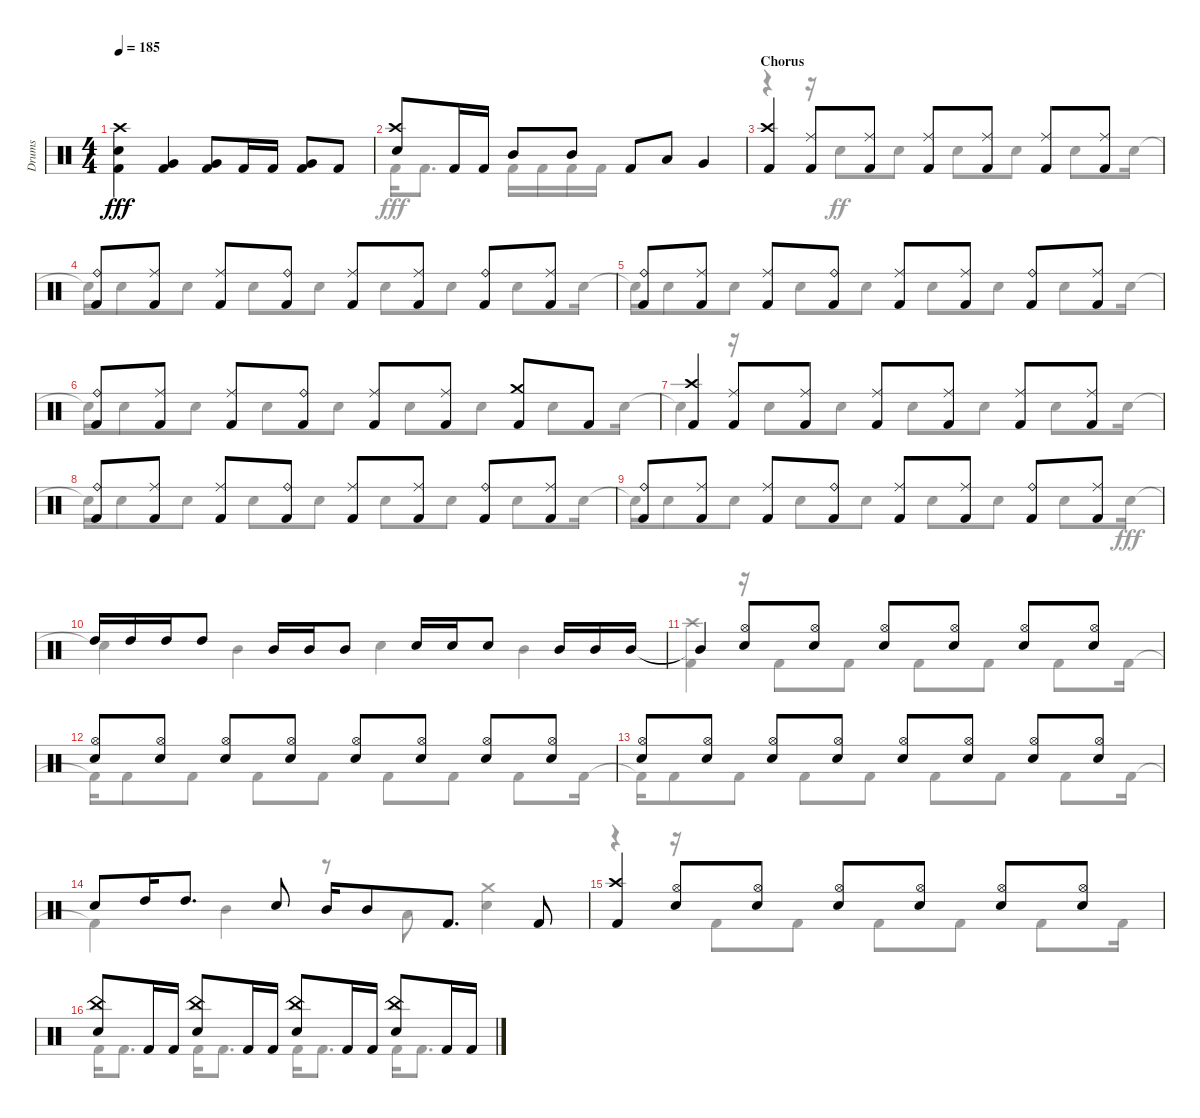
\track ("Drums" "Drums") {instrument percussion}
\staff {score}
\articulation defaults
\voice
\ts (4 4)
\tempo 185
\clef neutral
\ks aminor
("Crash high (hit)" "Snare (hit) 2" "Kick (hit) 2").4{dy fff} ("Kick (hit) 2" "Very Low Tom (hit)").4 ("Very Low Tom (hit)" "Kick (hit) 2").8 "Kick (hit) 2".16 "Kick (hit) 2".16 ("Kick (hit) 2" "Very Low Tom (hit)").8 "Kick (hit) 2".8 |
("Crash high (hit)" "Snare (hit) 2").8 "Kick (hit) 2".16 "Kick (hit) 2".16 "Mid Tom (hit)".8 "Mid Tom (hit)".8 "Kick (hit) 2".8 "Low Tom (hit)".8 "Very Low Tom (hit)".4 |
\section ("" "Chorus")
("Kick (hit) 2" "Crash high (hit)").4 ("Ride (middle)" "Kick (hit) 2").8 ("Kick (hit) 2" "Ride (middle)").8 ("Kick (hit) 2" "Ride (middle)").8 ("Kick (hit) 2" "Ride (middle)").8 ("Ride (middle)" "Kick (hit) 2").8 ("Ride (middle)" "Kick (hit) 2").8 |
("Ride (bell)" "Kick (hit) 2").8 ("Ride (middle)" "Kick (hit) 2").8 ("Ride (middle)" "Kick (hit) 2").8 ("Kick (hit) 2" "Ride (bell)").8 ("Ride (middle)" "Kick (hit) 2").8 ("Ride (middle)" "Kick (hit) 2").8 ("Ride (bell)" "Kick (hit) 2").8 ("Ride (middle)" "Kick (hit) 2").8 |
("Kick (hit) 2" "Ride (bell)").8 ("Ride (middle)" "Kick (hit) 2").8 ("Ride (middle)" "Kick (hit) 2").8 ("Ride (bell)" "Kick (hit) 2").8 ("Ride (middle)" "Kick (hit) 2").8 ("Kick (hit) 2" "Ride (middle)").8 ("Ride (bell)" "Kick (hit) 2").8 ("Kick (hit) 2" "Ride (middle)").8 |
("Ride (bell)" "Kick (hit) 2").8 ("Kick (hit) 2" "Ride (middle)").8 ("Ride (middle)" "Kick (hit) 2").8 ("Ride (bell)" "Kick (hit) 2").8 ("Ride (middle)" "Kick (hit) 2").8 ("Ride (middle)" "Kick (hit) 2").8 ("Kick (hit) 2" "Crash medium (hit)").8 "Kick (hit) 2".8 |
("Crash high (hit)" "Kick (hit) 2").4 ("Ride (middle)" "Kick (hit) 2").8 ("Ride (middle)" "Kick (hit) 2").8 ("Ride (middle)" "Kick (hit) 2").8 ("Ride (middle)" "Kick (hit) 2").8 ("Ride (middle)" "Kick (hit) 2").8 ("Kick (hit) 2" "Ride (middle)").8 |
("Kick (hit) 2" "Ride (bell)").8 ("Ride (middle)" "Kick (hit) 2").8 ("Ride (middle)" "Kick (hit) 2").8 ("Ride (bell)" "Kick (hit) 2").8 ("Ride (middle)" "Kick (hit) 2").8 ("Kick (hit) 2" "Ride (middle)").8 ("Ride (bell)" "Kick (hit) 2").8 ("Kick (hit) 2" "Ride (middle)").8 |
("Kick (hit) 2" "Ride (bell)").8 ("Ride (middle)" "Kick (hit) 2").8 ("Ride (middle)" "Kick (hit) 2").8 ("Ride (bell)" "Kick (hit) 2").8 ("Kick (hit) 2" "Ride (middle)").8 ("Ride (middle)" "Kick (hit) 2").8 ("Ride (bell)" "Kick (hit) 2").8 ("Ride (middle)" "Kick (hit) 2").8 |
"High Tom (hit)".16 "High Tom (hit)".16 "High Tom (hit)".16 "High Tom (hit)".8 "Mid Tom (hit)".16 "Mid Tom (hit)".16 "Mid Tom (hit)".8 "Snare (hit) 2".16 "Snare (hit) 2".16 "Snare (hit) 2".8 "Mid Tom (hit)".16 "Mid Tom (hit)".16 "Mid Tom (hit)".16 |
"Mid Tom (hit)"{t}.4 ("Hi-Hat (open)" "Snare (hit) 2").8 ("Snare (hit) 2" "Hi-Hat (open)").8 ("Snare (hit) 2" "Hi-Hat (open)").8 ("Snare (hit) 2" "Hi-Hat (open)").8 ("Snare (hit) 2" "Hi-Hat (open)").8 ("Hi-Hat (open)" "Snare (hit) 2").8 |
("Hi-Hat (open)" "Snare (hit) 2").8 ("Hi-Hat (open)" "Snare (hit) 2").8 ("Snare (hit) 2" "Hi-Hat (open)").8 ("Snare (hit) 2" "Hi-Hat (open)").8 ("Snare (hit) 2" "Hi-Hat (open)").8 ("Snare (hit) 2" "Hi-Hat (open)").8 ("Snare (hit) 2" "Hi-Hat (open)").8 ("Snare (hit) 2" "Hi-Hat (open)").8 |
("Snare (hit) 2" "Hi-Hat (open)").8 ("Hi-Hat (open)" "Snare (hit) 2").8 ("Hi-Hat (open)" "Snare (hit) 2").8 ("Hi-Hat (open)" "Snare (hit) 2").8 ("Hi-Hat (open)" "Snare (hit) 2").8 ("Snare (hit) 2" "Hi-Hat (open)").8 ("Snare (hit) 2" "Hi-Hat (open)").8 ("Snare (hit) 2" "Hi-Hat (open)").8 |
"Snare (hit) 2".8 "High Tom (hit)".16 "High Tom (hit)".8{d} "Snare (hit) 2".8 "Mid Tom (hit)".16 "Mid Tom (hit)".8 "Kick (hit) 2".8{d} "Kick (hit) 2".8 |
("Kick (hit) 2" "Crash high (hit)").4 ("Snare (hit) 2" "Hi-Hat (open)").8 ("Hi-Hat (open)" "Snare (hit) 2").8 ("Snare (hit) 2" "Hi-Hat (open)").8 ("Hi-Hat (open)" "Snare (hit) 2").8 ("Hi-Hat (open)" "Snare (hit) 2").8 ("Snare (hit) 2" "Hi-Hat (open)").8 |
("China (hit)" "Snare (hit) 2").8 "Kick (hit) 2".16 "Kick (hit) 2".16 ("Snare (hit) 2" "China (hit)").8 "Kick (hit) 2".16 "Kick (hit) 2".16 ("Snare (hit) 2" "China (hit)").8 "Kick (hit) 2".16 "Kick (hit) 2".16 ("Snare (hit) 2" "China (hit)").8 "Kick (hit) 2".16 "Kick (hit) 2".16
\voice
\clef neutral
\ottava regular
\simile none
\ks aminor
|
"Kick (hit) 2".16 "Kick (hit) 2".8{d} "Kick (hit) 2".16 "Kick (hit) 2".16 "Kick (hit) 2".16 "Kick (hit) 2".16 |
r.4 r.16 "Snare (hit) 2".8{dy ff} "Snare (hit) 2".8 "Snare (hit) 2".8 "Snare (hit) 2".8 "Snare (hit) 2".8 "Snare (hit) 2".16 |
"Snare (hit) 2"{t}.16 "Snare (hit) 2".8 "Snare (hit) 2".8 "Snare (hit) 2".8 "Snare (hit) 2".8 "Snare (hit) 2".8 "Snare (hit) 2".8 "Snare (hit) 2".8 "Snare (hit) 2".16 |
"Snare (hit) 2"{t}.16 "Snare (hit) 2".8 "Snare (hit) 2".8 "Snare (hit) 2".8 "Snare (hit) 2".8 "Snare (hit) 2".8 "Snare (hit) 2".8 "Snare (hit) 2".8 "Snare (hit) 2".16 |
"Snare (hit) 2"{t}.16 "Snare (hit) 2".8 "Snare (hit) 2".8 "Snare (hit) 2".8 "Snare (hit) 2".8 "Snare (hit) 2".8 "Snare (hit) 2".8 "Snare (hit) 2".8 "Snare (hit) 2".16 |
"Snare (hit) 2"{t}.4 r.16 "Snare (hit) 2".8 "Snare (hit) 2".8 "Snare (hit) 2".8 "Snare (hit) 2".8 "Snare (hit) 2".8 "Snare (hit) 2".16 |
"Snare (hit) 2"{t}.16 "Snare (hit) 2".8 "Snare (hit) 2".8 "Snare (hit) 2".8 "Snare (hit) 2".8 "Snare (hit) 2".8 "Snare (hit) 2".8 "Snare (hit) 2".8 "Snare (hit) 2".16 |
"Snare (hit) 2"{t}.16 "Snare (hit) 2".8 "Snare (hit) 2".8 "Snare (hit) 2".8 "Snare (hit) 2".8 "Snare (hit) 2".8 "Snare (hit) 2".8 "Snare (hit) 2".8 "Snare (hit) 2".16{dy fff} |
"Snare (hit) 2"{t}.4 "Mid Tom (hit)".4 "Snare (hit) 2".4 "Mid Tom (hit)".4 |
("Kick (hit) 2" "Crash high (hit)").4 r.16 "Kick (hit) 2".8 "Kick (hit) 2".8 "Kick (hit) 2".8 "Kick (hit) 2".8 "Kick (hit) 2".8 "Kick (hit) 2".16 |
"Kick (hit) 2"{t}.16 "Kick (hit) 2".8 "Kick (hit) 2".8 "Kick (hit) 2".8 "Kick (hit) 2".8 "Kick (hit) 2".8 "Kick (hit) 2".8 "Kick (hit) 2".8 "Kick (hit) 2".16 |
"Kick (hit) 2"{t}.16 "Kick (hit) 2".8 "Kick (hit) 2".8 "Kick (hit) 2".8 "Kick (hit) 2".8 "Kick (hit) 2".8 "Kick (hit) 2".8 "Kick (hit) 2".8 "Kick (hit) 2".16 |
"Kick (hit) 2"{t}.4 "Mid Tom (hit)".4 r.8 "Low Tom (hit)".8 ("Snare (hit) 2" "Crash medium (hit)").4 |
r.4 r.16 "Kick (hit) 2".8 "Kick (hit) 2".8 "Kick (hit) 2".8 "Kick (hit) 2".8 "Kick (hit) 2".8 "Kick (hit) 2".16 |
"Kick (hit) 2".16 "Kick (hit) 2".8{d} "Kick (hit) 2".16 "Kick (hit) 2".8{d} "Kick (hit) 2".16 "Kick (hit) 2".8{d} "Kick (hit) 2".16 "Kick (hit) 2".8{d}
